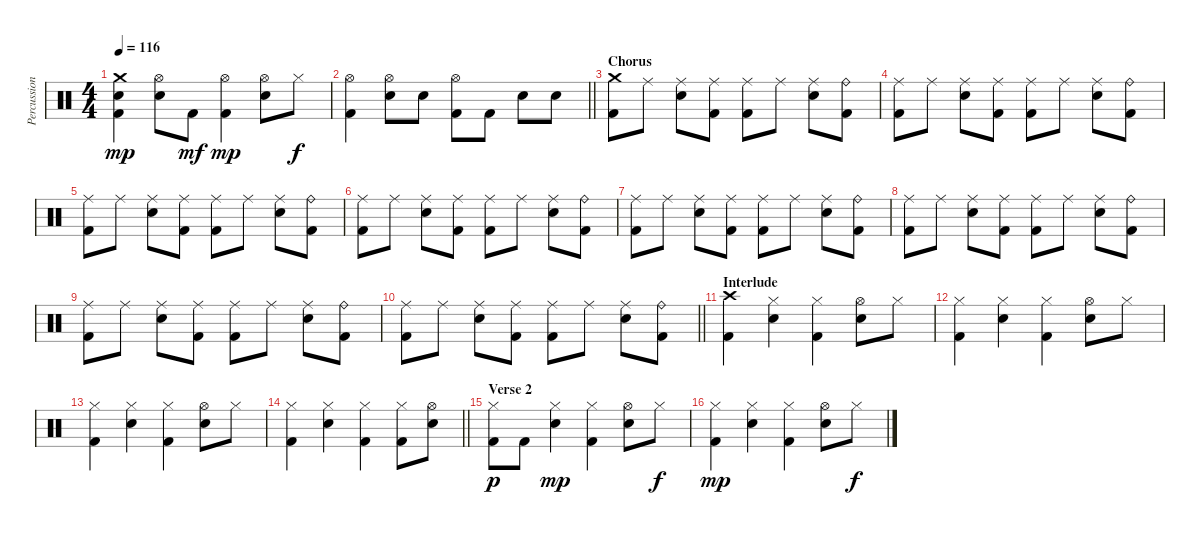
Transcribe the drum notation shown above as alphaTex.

\track ("Percussion" "Percussion") {instrument percussion}
\staff {score}
\articulation defaults
\ts (4 4)
\tempo 116
\clef neutral
\ks c
("Crash medium (hit)" "Snare (hit) 2" "Kick (hit) 2").4{dy mp} ("Hi-Hat (open)" "Snare (hit) 2").8 "Kick (hit) 2".8{dy mf} ("Hi-Hat (open)" "Kick (hit) 2").4{dy mp} ("Hi-Hat (open)" "Snare (hit) 2").8 "Hi-Hat (closed)".8{dy f} |
\barLineRight lightlight
("Hi-Hat (open)" "Kick (hit) 2").4 ("Hi-Hat (open)" "Snare (hit) 2").8 "Snare (hit) 2".8 ("Hi-Hat (open)" "Kick (hit) 2").8 "Kick (hit) 2".8 "Snare (hit) 2".8 "Snare (hit) 2".8 |
\section ("" "Chorus")
("Crash medium (hit)" "Kick (hit) 2").8 "Ride (middle)".8 ("Ride (middle)" "Snare (hit) 2").8 ("Ride (middle)" "Kick (hit) 2").8 ("Ride (middle)" "Kick (hit) 2").8 "Ride (middle)".8 ("Ride (middle)" "Snare (hit) 2").8 ("Ride (bell)" "Kick (hit) 2").8 |
("Ride (middle)" "Kick (hit) 2").8 "Ride (middle)".8 ("Ride (middle)" "Snare (hit) 2").8 ("Ride (middle)" "Kick (hit) 2").8 ("Ride (middle)" "Kick (hit) 2").8 "Ride (middle)".8 ("Ride (middle)" "Snare (hit) 2").8 ("Ride (bell)" "Kick (hit) 2").8 |
("Ride (middle)" "Kick (hit) 2").8 "Ride (middle)".8 ("Ride (middle)" "Snare (hit) 2").8 ("Ride (middle)" "Kick (hit) 2").8 ("Ride (middle)" "Kick (hit) 2").8 "Ride (middle)".8 ("Ride (middle)" "Snare (hit) 2").8 ("Ride (bell)" "Kick (hit) 2").8 |
("Ride (middle)" "Kick (hit) 2").8 "Ride (middle)".8 ("Ride (middle)" "Snare (hit) 2").8 ("Ride (middle)" "Kick (hit) 2").8 ("Ride (middle)" "Kick (hit) 2").8 "Ride (middle)".8 ("Ride (middle)" "Snare (hit) 2").8 ("Ride (bell)" "Kick (hit) 2").8 |
("Ride (middle)" "Kick (hit) 2").8 "Ride (middle)".8 ("Ride (middle)" "Snare (hit) 2").8 ("Ride (middle)" "Kick (hit) 2").8 ("Ride (middle)" "Kick (hit) 2").8 "Ride (middle)".8 ("Ride (middle)" "Snare (hit) 2").8 ("Ride (bell)" "Kick (hit) 2").8 |
("Ride (middle)" "Kick (hit) 2").8 "Ride (middle)".8 ("Ride (middle)" "Snare (hit) 2").8 ("Ride (middle)" "Kick (hit) 2").8 ("Ride (middle)" "Kick (hit) 2").8 "Ride (middle)".8 ("Ride (middle)" "Snare (hit) 2").8 ("Ride (bell)" "Kick (hit) 2").8 |
("Ride (middle)" "Kick (hit) 2").8 "Ride (middle)".8 ("Ride (middle)" "Snare (hit) 2").8 ("Ride (middle)" "Kick (hit) 2").8 ("Ride (middle)" "Kick (hit) 2").8 "Ride (middle)".8 ("Ride (middle)" "Snare (hit) 2").8 ("Ride (bell)" "Kick (hit) 2").8 |
\barLineRight lightlight
("Ride (middle)" "Kick (hit) 2").8 "Ride (middle)".8 ("Ride (middle)" "Snare (hit) 2").8 ("Ride (middle)" "Kick (hit) 2").8 ("Ride (middle)" "Kick (hit) 2").8 "Ride (middle)".8 ("Ride (middle)" "Snare (hit) 2").8 ("Ride (bell)" "Kick (hit) 2").8 |
\section ("" "Interlude")
("Crash high (hit)" "Kick (hit) 2").4 ("Hi-Hat (closed)" "Snare (hit) 2").4 ("Hi-Hat (closed)" "Kick (hit) 2").4 ("Hi-Hat (open)" "Snare (hit) 2").8 "Hi-Hat (closed)".8 |
("Hi-Hat (closed)" "Kick (hit) 2").4 ("Hi-Hat (closed)" "Snare (hit) 2").4 ("Hi-Hat (closed)" "Kick (hit) 2").4 ("Hi-Hat (open)" "Snare (hit) 2").8 "Hi-Hat (closed)".8 |
("Hi-Hat (closed)" "Kick (hit) 2").4 ("Hi-Hat (closed)" "Snare (hit) 2").4 ("Hi-Hat (closed)" "Kick (hit) 2").4 ("Hi-Hat (open)" "Snare (hit) 2").8 "Hi-Hat (closed)".8 |
\barLineRight lightlight
("Hi-Hat (closed)" "Kick (hit) 2").4 ("Hi-Hat (closed)" "Snare (hit) 2").4 ("Hi-Hat (closed)" "Kick (hit) 2").4 ("Hi-Hat (closed)" "Kick (hit) 2").8 ("Hi-Hat (open)" "Snare (hit) 2").8 |
\section ("" "Verse 2")
("Hi-Hat (closed)" "Kick (hit) 2").8{dy p} "Kick (hit) 2".8 ("Hi-Hat (closed)" "Snare (hit) 2").4{dy mp} ("Hi-Hat (closed)" "Kick (hit) 2").4 ("Hi-Hat (open)" "Snare (hit) 2").8 "Hi-Hat (closed)".8{dy f} |
("Hi-Hat (closed)" "Kick (hit) 2").4{dy mp} ("Hi-Hat (closed)" "Snare (hit) 2").4 ("Hi-Hat (closed)" "Kick (hit) 2").4 ("Hi-Hat (open)" "Snare (hit) 2").8 "Hi-Hat (closed)".8{dy f}
